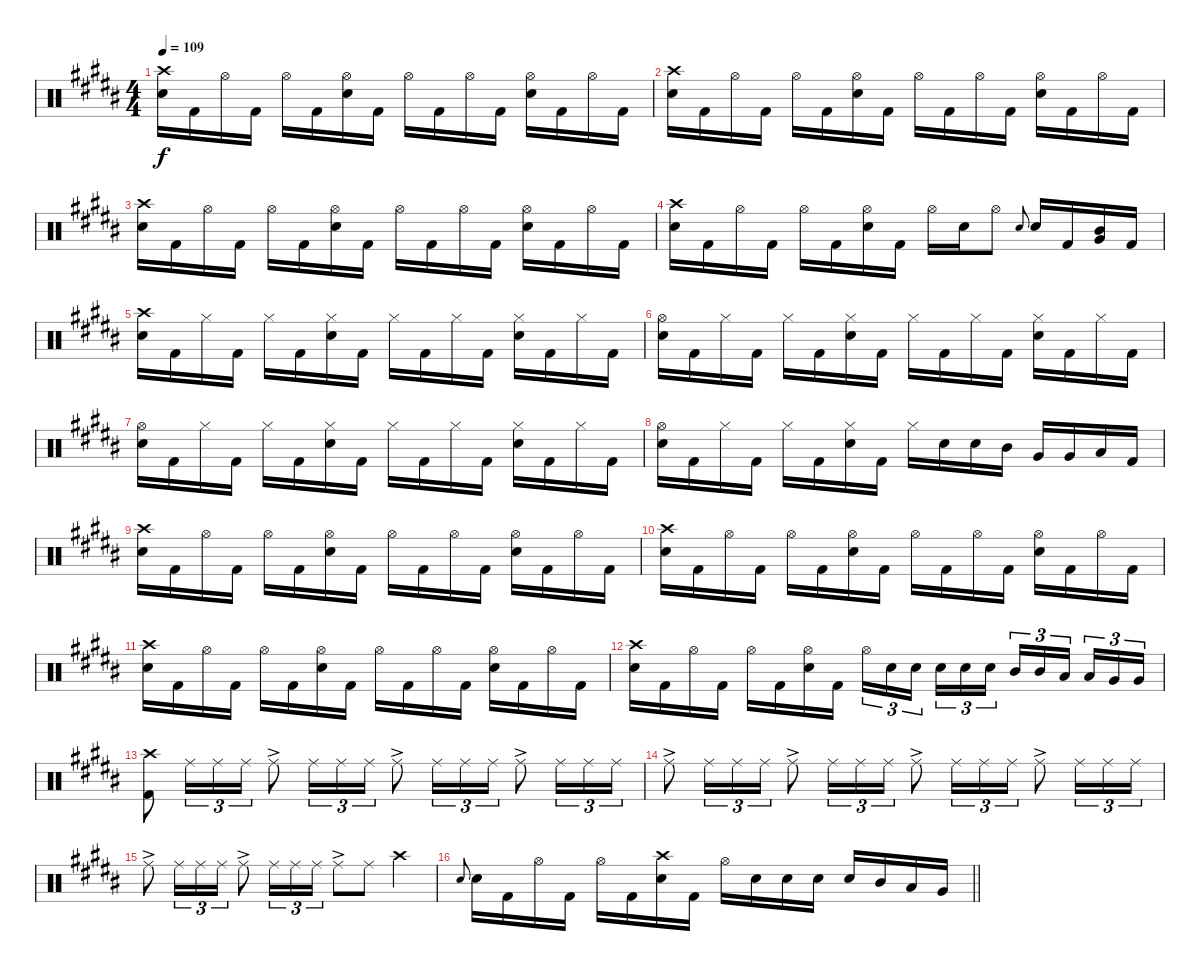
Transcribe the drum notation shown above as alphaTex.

\track "" {instrument percussion}
\staff {score}
\articulation defaults
\ts (4 4)
\tempo 109
\clef neutral
\ks g#minor
("Crash high (hit)" "Snare (hit) 2").16{dy f} "Kick (hit) 2".16 "Hi-Hat (open)".16 "Kick (hit) 2".16 "Hi-Hat (open)".16 "Kick (hit) 2".16 ("Hi-Hat (open)" "Snare (hit) 2").16 "Kick (hit) 2".16 "Hi-Hat (open)".16 "Kick (hit) 2".16 "Hi-Hat (open)".16 "Kick (hit) 2".16 ("Hi-Hat (open)" "Snare (hit) 2").16 "Kick (hit) 2".16 "Hi-Hat (open)".16 "Kick (hit) 2".16 |
("Crash high (hit)" "Snare (hit) 2").16 "Kick (hit) 2".16 "Hi-Hat (open)".16 "Kick (hit) 2".16 "Hi-Hat (open)".16 "Kick (hit) 2".16 ("Hi-Hat (open)" "Snare (hit) 2").16 "Kick (hit) 2".16 "Hi-Hat (open)".16 "Kick (hit) 2".16 "Hi-Hat (open)".16 "Kick (hit) 2".16 ("Hi-Hat (open)" "Snare (hit) 2").16 "Kick (hit) 2".16 "Hi-Hat (open)".16 "Kick (hit) 2".16 |
("Crash high (hit)" "Snare (hit) 2").16 "Kick (hit) 2".16 "Hi-Hat (open)".16 "Kick (hit) 2".16 "Hi-Hat (open)".16 "Kick (hit) 2".16 ("Hi-Hat (open)" "Snare (hit) 2").16 "Kick (hit) 2".16 "Hi-Hat (open)".16 "Kick (hit) 2".16 "Hi-Hat (open)".16 "Kick (hit) 2".16 ("Hi-Hat (open)" "Snare (hit) 2").16 "Kick (hit) 2".16 "Hi-Hat (open)".16 "Kick (hit) 2".16 |
("Crash high (hit)" "Snare (hit) 2").16 "Kick (hit) 2".16 "Hi-Hat (open)".16 "Kick (hit) 2".16 "Hi-Hat (open)".16 "Kick (hit) 2".16 ("Hi-Hat (open)" "Snare (hit) 2").16 "Kick (hit) 2".16 "Hi-Hat (open)".16 "Snare (hit) 2".16 "Hi-Hat (open)".8 "Snare (hit) 2".8{gr onbeat} "Snare (hit) 2".16 "Kick (hit) 2".16 ("Mid Tom (hit)" "Very Low Tom (hit)").16 "Kick (hit) 2".16 |
("Crash high (hit)" "Snare (hit) 2").16 "Kick (hit) 2".16 "Hi-Hat (closed)".16 "Kick (hit) 2".16 "Hi-Hat (closed)".16 "Kick (hit) 2".16 ("Hi-Hat (closed)" "Snare (hit) 2").16 "Kick (hit) 2".16 "Hi-Hat (closed)".16 "Kick (hit) 2".16 "Hi-Hat (closed)".16 "Kick (hit) 2".16 ("Hi-Hat (closed)" "Snare (hit) 2").16 "Kick (hit) 2".16 "Hi-Hat (closed)".16 "Kick (hit) 2".16 |
("Hi-Hat (open)" "Snare (hit) 2").16 "Kick (hit) 2".16 "Hi-Hat (closed)".16 "Kick (hit) 2".16 "Hi-Hat (closed)".16 "Kick (hit) 2".16 ("Hi-Hat (closed)" "Snare (hit) 2").16 "Kick (hit) 2".16 "Hi-Hat (closed)".16 "Kick (hit) 2".16 "Hi-Hat (closed)".16 "Kick (hit) 2".16 ("Hi-Hat (closed)" "Snare (hit) 2").16 "Kick (hit) 2".16 "Hi-Hat (closed)".16 "Kick (hit) 2".16 |
("Hi-Hat (open)" "Snare (hit) 2").16 "Kick (hit) 2".16 "Hi-Hat (closed)".16 "Kick (hit) 2".16 "Hi-Hat (closed)".16 "Kick (hit) 2".16 ("Hi-Hat (closed)" "Snare (hit) 2").16 "Kick (hit) 2".16 "Hi-Hat (closed)".16 "Kick (hit) 2".16 "Hi-Hat (closed)".16 "Kick (hit) 2".16 ("Hi-Hat (closed)" "Snare (hit) 2").16 "Kick (hit) 2".16 "Hi-Hat (closed)".16 "Kick (hit) 2".16 |
("Hi-Hat (open)" "Snare (hit) 2").16 "Kick (hit) 2".16 "Hi-Hat (closed)".16 "Kick (hit) 2".16 "Hi-Hat (closed)".16 "Kick (hit) 2".16 ("Hi-Hat (closed)" "Snare (hit) 2").16 "Kick (hit) 2".16 "Hi-Hat (closed)".16 "Snare (hit) 2".16 "Snare (hit) 2".16 "Mid Tom (hit)".16 "Very Low Tom (hit)".16 "Very Low Tom (hit)".16 "Low Floor Tom (hit)".16 "Kick (hit) 2".16 |
("Crash high (hit)" "Snare (hit) 2").16 "Kick (hit) 2".16 "Hi-Hat (open)".16 "Kick (hit) 2".16 "Hi-Hat (open)".16 "Kick (hit) 2".16 ("Hi-Hat (open)" "Snare (hit) 2").16 "Kick (hit) 2".16 "Hi-Hat (open)".16 "Kick (hit) 2".16 "Hi-Hat (open)".16 "Kick (hit) 2".16 ("Hi-Hat (open)" "Snare (hit) 2").16 "Kick (hit) 2".16 "Hi-Hat (open)".16 "Kick (hit) 2".16 |
("Crash high (hit)" "Snare (hit) 2").16 "Kick (hit) 2".16 "Hi-Hat (open)".16 "Kick (hit) 2".16 "Hi-Hat (open)".16 "Kick (hit) 2".16 ("Hi-Hat (open)" "Snare (hit) 2").16 "Kick (hit) 2".16 "Hi-Hat (open)".16 "Kick (hit) 2".16 "Hi-Hat (open)".16 "Kick (hit) 2".16 ("Hi-Hat (open)" "Snare (hit) 2").16 "Kick (hit) 2".16 "Hi-Hat (open)".16 "Kick (hit) 2".16 |
("Crash high (hit)" "Snare (hit) 2").16 "Kick (hit) 2".16 "Hi-Hat (open)".16 "Kick (hit) 2".16 "Hi-Hat (open)".16 "Kick (hit) 2".16 ("Hi-Hat (open)" "Snare (hit) 2").16 "Kick (hit) 2".16 "Hi-Hat (open)".16 "Kick (hit) 2".16 "Hi-Hat (open)".16 "Kick (hit) 2".16 ("Hi-Hat (open)" "Snare (hit) 2").16 "Kick (hit) 2".16 "Hi-Hat (open)".16 "Kick (hit) 2".16 |
("Crash high (hit)" "Snare (hit) 2").16 "Kick (hit) 2".16 "Hi-Hat (open)".16 "Kick (hit) 2".16 "Hi-Hat (open)".16 "Kick (hit) 2".16 ("Hi-Hat (open)" "Snare (hit) 2").16 "Kick (hit) 2".16 "Hi-Hat (open)".16{tu (3 2)} "Snare (hit) 2".16{tu (3 2)} "Snare (hit) 2".16{tu (3 2) beam splitsecondary} "Snare (hit) 2".16{tu (3 2)} "Snare (hit) 2".16{tu (3 2)} "Snare (hit) 2".16{tu (3 2)} "Mid Tom (hit)".16{tu (3 2)} "Mid Tom (hit)".16{tu (3 2)} "Low Tom (hit)".16{tu (3 2) beam splitsecondary} "Low Tom (hit)".16{tu (3 2)} "Very Low Tom (hit)".16{tu (3 2)} "Very Low Tom (hit)".16{tu (3 2)} |
("Crash high (hit)" "Kick (hit) 2").8 "Ride (middle)".16{tu (3 2)} "Ride (middle)".16{tu (3 2)} "Ride (middle)".16{tu (3 2)} "Ride (middle)"{ac}.8 "Ride (middle)".16{tu (3 2)} "Ride (middle)".16{tu (3 2)} "Ride (middle)".16{tu (3 2)} "Ride (middle)"{ac}.8 "Ride (middle)".16{tu (3 2)} "Ride (middle)".16{tu (3 2)} "Ride (middle)".16{tu (3 2)} "Ride (middle)"{ac}.8 "Ride (middle)".16{tu (3 2)} "Ride (middle)".16{tu (3 2)} "Ride (middle)".16{tu (3 2)} |
"Ride (middle)"{ac}.8 "Ride (middle)".16{tu (3 2)} "Ride (middle)".16{tu (3 2)} "Ride (middle)".16{tu (3 2)} "Ride (middle)"{ac}.8 "Ride (middle)".16{tu (3 2)} "Ride (middle)".16{tu (3 2)} "Ride (middle)".16{tu (3 2)} "Ride (middle)"{ac}.8 "Ride (middle)".16{tu (3 2)} "Ride (middle)".16{tu (3 2)} "Ride (middle)".16{tu (3 2)} "Ride (middle)"{ac}.8 "Ride (middle)".16{tu (3 2)} "Ride (middle)".16{tu (3 2)} "Ride (middle)".16{tu (3 2)} |
"Ride (middle)"{ac}.8 "Ride (middle)".16{tu (3 2)} "Ride (middle)".16{tu (3 2)} "Ride (middle)".16{tu (3 2)} "Ride (middle)"{ac}.8 "Ride (middle)".16{tu (3 2)} "Ride (middle)".16{tu (3 2)} "Ride (middle)".16{tu (3 2)} "Ride (middle)"{ac}.8 "Ride (middle)".8 "Crash high (hit)".4 |
\barLineRight lightlight "Snare (hit) 2".8{gr onbeat} "Snare (hit) 2".16 "Kick (hit) 2".16 "Hi-Hat (open)".16 "Kick (hit) 2".16 "Hi-Hat (open)".16 "Kick (hit) 2".16
("Crash high (hit)" "Snare (hit) 2").16 "Kick (hit) 2".16 "Hi-Hat (open)".16 "Snare (hit) 2".16 "Snare (hit) 2".16 "Snare (hit) 2".16 "Snare (hit) 2".16 "Mid Tom (hit)".16 "Low Tom (hit)".16 "Very Low Tom (hit)".16
